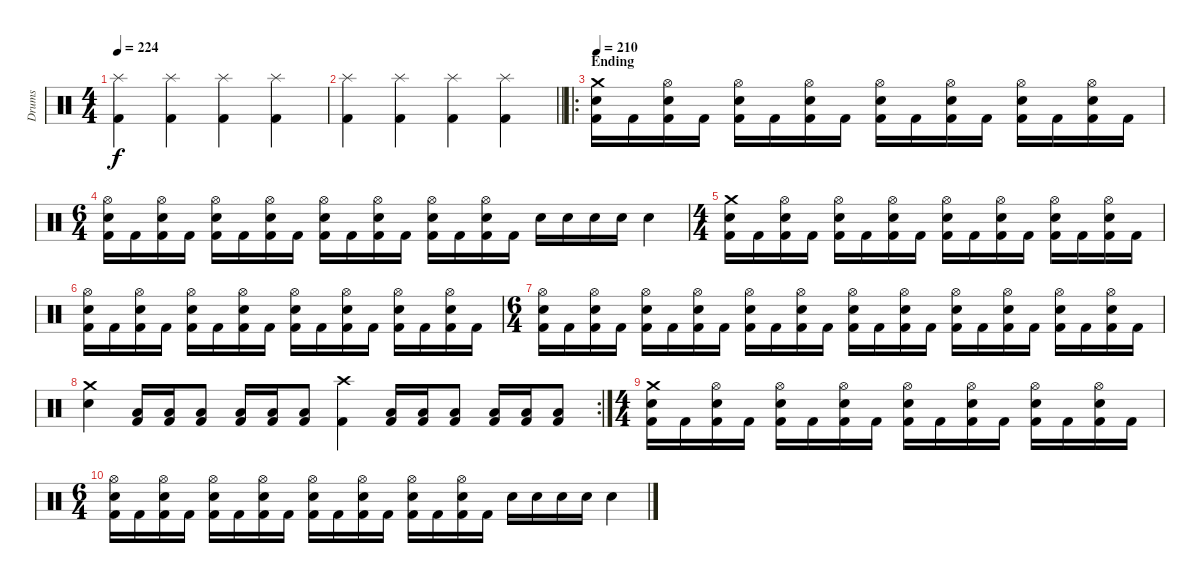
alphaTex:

\track ("Drums" "Drums") {instrument percussion}
\staff {score}
\articulation defaults
\ts (4 4)
\tempo 224
\clef neutral
\ks c
("Splash (hit)" "Kick (hit) 2").4{dy f} ("Splash (hit)" "Kick (hit) 2").4 ("Splash (hit)" "Kick (hit) 2").4 ("Splash (hit)" "Kick (hit) 2").4 |
\barLineRight lightlight
("Splash (hit)" "Kick (hit) 2").4 ("Splash (hit)" "Kick (hit) 2").4 ("Splash (hit)" "Kick (hit) 2").4 ("Splash (hit)" "Kick (hit) 2").4 |
\ro
\section ("" "Ending")
\tempo 210
("Crash medium (hit)" "Electric Snare (hit)" "Kick (hit) 2").16 "Kick (hit) 2".16 ("Hi-Hat (open)" "Electric Snare (hit)" "Kick (hit) 2").16 "Kick (hit) 2".16 ("Hi-Hat (open)" "Electric Snare (hit)" "Kick (hit) 2").16 "Kick (hit) 2".16 ("Hi-Hat (open)" "Electric Snare (hit)" "Kick (hit) 2").16 "Kick (hit) 2".16 ("Hi-Hat (open)" "Electric Snare (hit)" "Kick (hit) 2").16 "Kick (hit) 2".16 ("Hi-Hat (open)" "Electric Snare (hit)" "Kick (hit) 2").16 "Kick (hit) 2".16 ("Hi-Hat (open)" "Electric Snare (hit)" "Kick (hit) 2").16 "Kick (hit) 2".16 ("Hi-Hat (open)" "Electric Snare (hit)" "Kick (hit) 2").16 "Kick (hit) 2".16 |
\ts (6 4)
("Hi-Hat (open)" "Electric Snare (hit)" "Kick (hit) 2").16 "Kick (hit) 2".16 ("Hi-Hat (open)" "Electric Snare (hit)" "Kick (hit) 2").16 "Kick (hit) 2".16 ("Hi-Hat (open)" "Electric Snare (hit)" "Kick (hit) 2").16 "Kick (hit) 2".16 ("Hi-Hat (open)" "Electric Snare (hit)" "Kick (hit) 2").16 "Kick (hit) 2".16 ("Hi-Hat (open)" "Electric Snare (hit)" "Kick (hit) 2").16 "Kick (hit) 2".16 ("Hi-Hat (open)" "Electric Snare (hit)" "Kick (hit) 2").16 "Kick (hit) 2".16 ("Hi-Hat (open)" "Electric Snare (hit)" "Kick (hit) 2").16 "Kick (hit) 2".16 ("Hi-Hat (open)" "Electric Snare (hit)" "Kick (hit) 2").16 "Kick (hit) 2".16 "Electric Snare (hit)".16 "Electric Snare (hit)".16 "Electric Snare (hit)".16 "Electric Snare (hit)".16 "Electric Snare (hit)".4 |
\ts (4 4)
("Crash medium (hit)" "Electric Snare (hit)" "Kick (hit) 2").16 "Kick (hit) 2".16 ("Hi-Hat (open)" "Electric Snare (hit)" "Kick (hit) 2").16 "Kick (hit) 2".16 ("Hi-Hat (open)" "Electric Snare (hit)" "Kick (hit) 2").16 "Kick (hit) 2".16 ("Hi-Hat (open)" "Electric Snare (hit)" "Kick (hit) 2").16 "Kick (hit) 2".16 ("Hi-Hat (open)" "Electric Snare (hit)" "Kick (hit) 2").16 "Kick (hit) 2".16 ("Hi-Hat (open)" "Electric Snare (hit)" "Kick (hit) 2").16 "Kick (hit) 2".16 ("Hi-Hat (open)" "Electric Snare (hit)" "Kick (hit) 2").16 "Kick (hit) 2".16 ("Hi-Hat (open)" "Electric Snare (hit)" "Kick (hit) 2").16 "Kick (hit) 2".16 |
("Hi-Hat (open)" "Electric Snare (hit)" "Kick (hit) 2").16 "Kick (hit) 2".16 ("Hi-Hat (open)" "Electric Snare (hit)" "Kick (hit) 2").16 "Kick (hit) 2".16 ("Hi-Hat (open)" "Electric Snare (hit)" "Kick (hit) 2").16 "Kick (hit) 2".16 ("Hi-Hat (open)" "Electric Snare (hit)" "Kick (hit) 2").16 "Kick (hit) 2".16 ("Hi-Hat (open)" "Electric Snare (hit)" "Kick (hit) 2").16 "Kick (hit) 2".16 ("Hi-Hat (open)" "Electric Snare (hit)" "Kick (hit) 2").16 "Kick (hit) 2".16 ("Hi-Hat (open)" "Electric Snare (hit)" "Kick (hit) 2").16 "Kick (hit) 2".16 ("Hi-Hat (open)" "Electric Snare (hit)" "Kick (hit) 2").16 "Kick (hit) 2".16 |
\ts (6 4)
("Hi-Hat (open)" "Electric Snare (hit)" "Kick (hit) 2").16 "Kick (hit) 2".16 ("Hi-Hat (open)" "Electric Snare (hit)" "Kick (hit) 2").16 "Kick (hit) 2".16 ("Hi-Hat (open)" "Electric Snare (hit)" "Kick (hit) 2").16 "Kick (hit) 2".16 ("Hi-Hat (open)" "Electric Snare (hit)" "Kick (hit) 2").16 "Kick (hit) 2".16 ("Hi-Hat (open)" "Electric Snare (hit)" "Kick (hit) 2").16 "Kick (hit) 2".16 ("Hi-Hat (open)" "Electric Snare (hit)" "Kick (hit) 2").16 "Kick (hit) 2".16 ("Hi-Hat (open)" "Electric Snare (hit)" "Kick (hit) 2").16 "Kick (hit) 2".16 ("Hi-Hat (open)" "Electric Snare (hit)" "Kick (hit) 2").16 "Kick (hit) 2".16 ("Hi-Hat (open)" "Electric Snare (hit)" "Kick (hit) 2").16 "Kick (hit) 2".16 ("Hi-Hat (open)" "Electric Snare (hit)" "Kick (hit) 2").16 "Kick (hit) 2".16 ("Hi-Hat (open)" "Electric Snare (hit)" "Kick (hit) 2").16 "Kick (hit) 2".16 ("Hi-Hat (open)" "Electric Snare (hit)" "Kick (hit) 2").16 "Kick (hit) 2".16 |
\rc 2
("Crash medium (hit)" "Electric Snare (hit)").4 ("Kick (hit) 2" "Low Tom (hit)").16 ("Kick (hit) 2" "Low Tom (hit)").16 ("Kick (hit) 2" "Low Tom (hit)").8 ("Kick (hit) 2" "Low Tom (hit)").16 ("Kick (hit) 2" "Low Tom (hit)").16 ("Kick (hit) 2" "Low Tom (hit)").8 ("Crash high (hit)" "Kick (hit) 2").4 ("Kick (hit) 2" "Low Tom (hit)").16 ("Kick (hit) 2" "Low Tom (hit)").16 ("Kick (hit) 2" "Low Tom (hit)").8 ("Kick (hit) 2" "Low Tom (hit)").16 ("Kick (hit) 2" "Low Tom (hit)").16 ("Kick (hit) 2" "Low Tom (hit)").8 |
\ts (4 4)
("Crash medium (hit)" "Electric Snare (hit)" "Kick (hit) 2").16 "Kick (hit) 2".16 ("Hi-Hat (open)" "Electric Snare (hit)" "Kick (hit) 2").16 "Kick (hit) 2".16 ("Hi-Hat (open)" "Electric Snare (hit)" "Kick (hit) 2").16 "Kick (hit) 2".16 ("Hi-Hat (open)" "Electric Snare (hit)" "Kick (hit) 2").16 "Kick (hit) 2".16 ("Hi-Hat (open)" "Electric Snare (hit)" "Kick (hit) 2").16 "Kick (hit) 2".16 ("Hi-Hat (open)" "Electric Snare (hit)" "Kick (hit) 2").16 "Kick (hit) 2".16 ("Hi-Hat (open)" "Electric Snare (hit)" "Kick (hit) 2").16 "Kick (hit) 2".16 ("Hi-Hat (open)" "Electric Snare (hit)" "Kick (hit) 2").16 "Kick (hit) 2".16 |
\ts (6 4)
("Hi-Hat (open)" "Electric Snare (hit)" "Kick (hit) 2").16 "Kick (hit) 2".16 ("Hi-Hat (open)" "Electric Snare (hit)" "Kick (hit) 2").16 "Kick (hit) 2".16 ("Hi-Hat (open)" "Electric Snare (hit)" "Kick (hit) 2").16 "Kick (hit) 2".16 ("Hi-Hat (open)" "Electric Snare (hit)" "Kick (hit) 2").16 "Kick (hit) 2".16 ("Hi-Hat (open)" "Electric Snare (hit)" "Kick (hit) 2").16 "Kick (hit) 2".16 ("Hi-Hat (open)" "Electric Snare (hit)" "Kick (hit) 2").16 "Kick (hit) 2".16 ("Hi-Hat (open)" "Electric Snare (hit)" "Kick (hit) 2").16 "Kick (hit) 2".16 ("Hi-Hat (open)" "Electric Snare (hit)" "Kick (hit) 2").16 "Kick (hit) 2".16 "Electric Snare (hit)".16 "Electric Snare (hit)".16 "Electric Snare (hit)".16 "Electric Snare (hit)".16 "Electric Snare (hit)".4
